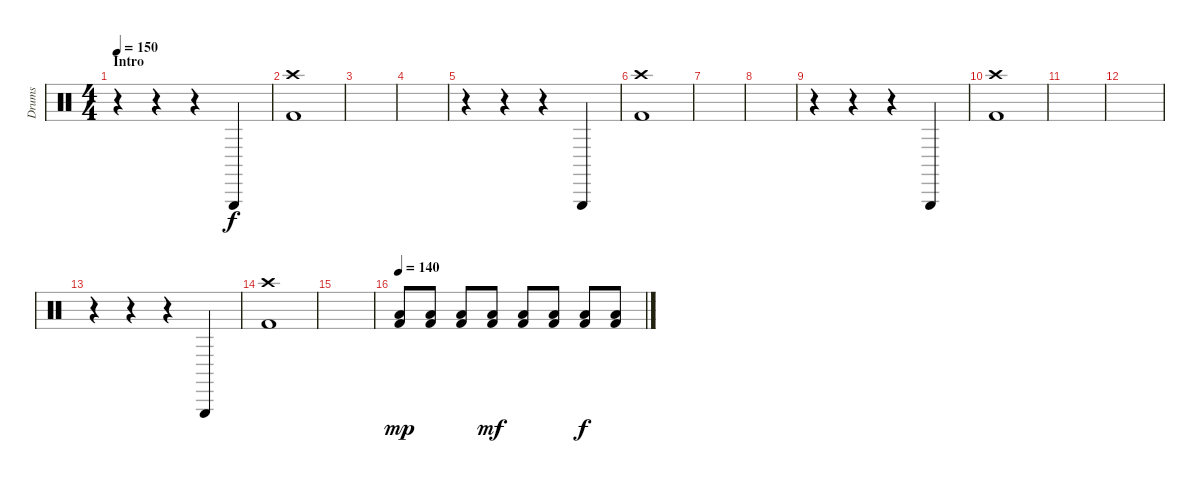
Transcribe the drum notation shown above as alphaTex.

\track ("Drums" "Drums") {instrument percussion}
\staff {score}
\articulation defaults
\ts (4 4)
\section ("" "Intro")
\tempo 150
\tempo 130
\tempo 150
\clef neutral
\ks c
r.4{dy f} r.4 r.4 "Triangle (hit)".4 |
("Crash high (hit)" "Kick (hit) 2").1 |
|
|
r.4 r.4 r.4 "Triangle (hit)".4 |
("Crash high (hit)" "Kick (hit) 2").1 |
|
|
r.4 r.4 r.4 "Triangle (hit)".4 |
("Crash high (hit)" "Kick (hit) 2").1 |
|
|
r.4 r.4 r.4 "Triangle (hit)".4 |
("Crash high (hit)" "Kick (hit) 2").1 |
|
\tempo 140
("Low Floor Tom (hit)" "Kick (hit) 2").8{dy mp} ("Low Floor Tom (hit)" "Kick (hit) 2").8 ("Low Floor Tom (hit)" "Kick (hit) 2").8 ("Low Floor Tom (hit)" "Kick (hit) 2").8{dy mf} ("Low Floor Tom (hit)" "Kick (hit) 2").8 ("Low Floor Tom (hit)" "Kick (hit) 2").8 ("Low Floor Tom (hit)" "Kick (hit) 2").8{dy f} ("Low Floor Tom (hit)" "Kick (hit) 2").8
